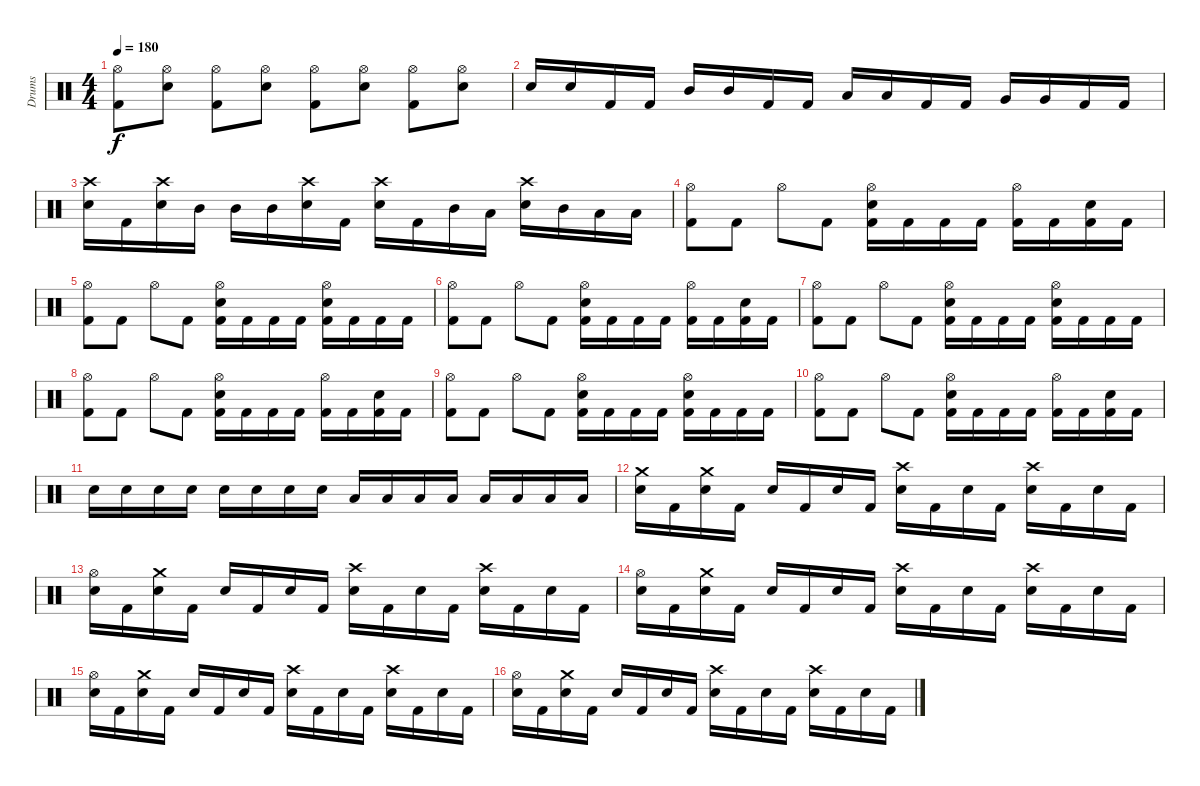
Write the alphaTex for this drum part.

\track ("Drums" "Drums") {instrument percussion}
\staff {score}
\articulation defaults
\ts (4 4)
\tempo 180
\clef neutral
\ks c
("Hi-Hat (open)" "Kick (hit) 2").8{dy f} ("Hi-Hat (open)" "Electric Snare (hit)").8 ("Hi-Hat (open)" "Kick (hit) 2").8 ("Hi-Hat (open)" "Electric Snare (hit)").8 ("Hi-Hat (open)" "Kick (hit) 2").8 ("Hi-Hat (open)" "Electric Snare (hit)").8 ("Hi-Hat (open)" "Kick (hit) 2").8 ("Hi-Hat (open)" "Electric Snare (hit)").8 |
"Electric Snare (hit)".16 "Electric Snare (hit)".16 "Kick (hit) 2".16 "Kick (hit) 2".16 "Mid Tom (hit)".16 "Mid Tom (hit)".16 "Kick (hit) 2".16 "Kick (hit) 2".16 "Low Tom (hit)".16 "Low Tom (hit)".16 "Kick (hit) 2".16 "Kick (hit) 2".16 "Very Low Tom (hit)".16 "Very Low Tom (hit)".16 "Kick (hit) 2".16 "Kick (hit) 2".16 |
("Crash high (hit)" "Electric Snare (hit)").16 "Kick (hit) 2".16 ("Crash high (hit)" "Electric Snare (hit)").16 "Mid Tom (hit)".16 "Mid Tom (hit)".16 "Mid Tom (hit)".16 ("Crash high (hit)" "Electric Snare (hit)").16 "Kick (hit) 2".16 ("Crash high (hit)" "Electric Snare (hit)").16 "Kick (hit) 2".16 "Mid Tom (hit)".16 "Low Tom (hit)".16 ("Crash high (hit)" "Electric Snare (hit)").16 "Mid Tom (hit)".16 "Low Tom (hit)".16 "Low Tom (hit)".16 |
("Hi-Hat (open)" "Kick (hit) 2").8 "Kick (hit) 2".8 "Hi-Hat (open)".8 "Kick (hit) 2".8 ("Hi-Hat (open)" "Electric Snare (hit)" "Kick (hit) 2").16 "Kick (hit) 2".16 "Kick (hit) 2".16 "Kick (hit) 2".16 ("Hi-Hat (open)" "Kick (hit) 2").16 "Kick (hit) 2".16 ("Electric Snare (hit)" "Kick (hit) 2").16 "Kick (hit) 2".16 |
("Hi-Hat (open)" "Kick (hit) 2").8 "Kick (hit) 2".8 "Hi-Hat (open)".8 "Kick (hit) 2".8 ("Hi-Hat (open)" "Electric Snare (hit)" "Kick (hit) 2").16 "Kick (hit) 2".16 "Kick (hit) 2".16 "Kick (hit) 2".16 ("Hi-Hat (open)" "Electric Snare (hit)" "Kick (hit) 2").16 "Kick (hit) 2".16 "Kick (hit) 2".16 "Kick (hit) 2".16 |
("Hi-Hat (open)" "Kick (hit) 2").8 "Kick (hit) 2".8 "Hi-Hat (open)".8 "Kick (hit) 2".8 ("Hi-Hat (open)" "Electric Snare (hit)" "Kick (hit) 2").16 "Kick (hit) 2".16 "Kick (hit) 2".16 "Kick (hit) 2".16 ("Hi-Hat (open)" "Kick (hit) 2").16 "Kick (hit) 2".16 ("Electric Snare (hit)" "Kick (hit) 2").16 "Kick (hit) 2".16 |
("Hi-Hat (open)" "Kick (hit) 2").8 "Kick (hit) 2".8 "Hi-Hat (open)".8 "Kick (hit) 2".8 ("Hi-Hat (open)" "Electric Snare (hit)" "Kick (hit) 2").16 "Kick (hit) 2".16 "Kick (hit) 2".16 "Kick (hit) 2".16 ("Hi-Hat (open)" "Electric Snare (hit)" "Kick (hit) 2").16 "Kick (hit) 2".16 "Kick (hit) 2".16 "Kick (hit) 2".16 |
("Hi-Hat (open)" "Kick (hit) 2").8 "Kick (hit) 2".8 "Hi-Hat (open)".8 "Kick (hit) 2".8 ("Hi-Hat (open)" "Electric Snare (hit)" "Kick (hit) 2").16 "Kick (hit) 2".16 "Kick (hit) 2".16 "Kick (hit) 2".16 ("Hi-Hat (open)" "Kick (hit) 2").16 "Kick (hit) 2".16 ("Electric Snare (hit)" "Kick (hit) 2").16 "Kick (hit) 2".16 |
("Hi-Hat (open)" "Kick (hit) 2").8 "Kick (hit) 2".8 "Hi-Hat (open)".8 "Kick (hit) 2".8 ("Hi-Hat (open)" "Electric Snare (hit)" "Kick (hit) 2").16 "Kick (hit) 2".16 "Kick (hit) 2".16 "Kick (hit) 2".16 ("Hi-Hat (open)" "Electric Snare (hit)" "Kick (hit) 2").16 "Kick (hit) 2".16 "Kick (hit) 2".16 "Kick (hit) 2".16 |
("Hi-Hat (open)" "Kick (hit) 2").8 "Kick (hit) 2".8 "Hi-Hat (open)".8 "Kick (hit) 2".8 ("Hi-Hat (open)" "Electric Snare (hit)" "Kick (hit) 2").16 "Kick (hit) 2".16 "Kick (hit) 2".16 "Kick (hit) 2".16 ("Hi-Hat (open)" "Kick (hit) 2").16 "Kick (hit) 2".16 ("Electric Snare (hit)" "Kick (hit) 2").16 "Kick (hit) 2".16 |
"Electric Snare (hit)".16 "Electric Snare (hit)".16 "Electric Snare (hit)".16 "Electric Snare (hit)".16 "Electric Snare (hit)".16 "Electric Snare (hit)".16 "Electric Snare (hit)".16 "Electric Snare (hit)".16 "Low Tom (hit)".16 "Low Tom (hit)".16 "Low Tom (hit)".16 "Low Tom (hit)".16 "Low Tom (hit)".16 "Low Tom (hit)".16 "Low Tom (hit)".16 "Low Tom (hit)".16 |
("Crash medium (hit)" "Electric Snare (hit)").16 "Kick (hit) 2".16 ("Crash medium (hit)" "Electric Snare (hit)").16 "Kick (hit) 2".16 "Electric Snare (hit)".16 "Kick (hit) 2".16 "Electric Snare (hit)".16 "Kick (hit) 2".16 ("Crash high (hit)" "Electric Snare (hit)").16 "Kick (hit) 2".16 "Electric Snare (hit)".16 "Kick (hit) 2".16 ("Crash high (hit)" "Electric Snare (hit)").16 "Kick (hit) 2".16 "Electric Snare (hit)".16 "Kick (hit) 2".16 |
("Hi-Hat (open)" "Electric Snare (hit)").16 "Kick (hit) 2".16 ("Crash medium (hit)" "Electric Snare (hit)").16 "Kick (hit) 2".16 "Electric Snare (hit)".16 "Kick (hit) 2".16 "Electric Snare (hit)".16 "Kick (hit) 2".16 ("Crash high (hit)" "Electric Snare (hit)").16 "Kick (hit) 2".16 "Electric Snare (hit)".16 "Kick (hit) 2".16 ("Crash high (hit)" "Electric Snare (hit)").16 "Kick (hit) 2".16 "Electric Snare (hit)".16 "Kick (hit) 2".16 |
("Hi-Hat (open)" "Electric Snare (hit)").16 "Kick (hit) 2".16 ("Crash medium (hit)" "Electric Snare (hit)").16 "Kick (hit) 2".16 "Electric Snare (hit)".16 "Kick (hit) 2".16 "Electric Snare (hit)".16 "Kick (hit) 2".16 ("Crash high (hit)" "Electric Snare (hit)").16 "Kick (hit) 2".16 "Electric Snare (hit)".16 "Kick (hit) 2".16 ("Crash high (hit)" "Electric Snare (hit)").16 "Kick (hit) 2".16 "Electric Snare (hit)".16 "Kick (hit) 2".16 |
("Hi-Hat (open)" "Electric Snare (hit)").16 "Kick (hit) 2".16 ("Crash medium (hit)" "Electric Snare (hit)").16 "Kick (hit) 2".16 "Electric Snare (hit)".16 "Kick (hit) 2".16 "Electric Snare (hit)".16 "Kick (hit) 2".16 ("Crash high (hit)" "Electric Snare (hit)").16 "Kick (hit) 2".16 "Electric Snare (hit)".16 "Kick (hit) 2".16 ("Crash high (hit)" "Electric Snare (hit)").16 "Kick (hit) 2".16 "Electric Snare (hit)".16 "Kick (hit) 2".16 |
("Hi-Hat (open)" "Electric Snare (hit)").16 "Kick (hit) 2".16 ("Crash medium (hit)" "Electric Snare (hit)").16 "Kick (hit) 2".16 "Electric Snare (hit)".16 "Kick (hit) 2".16 "Electric Snare (hit)".16 "Kick (hit) 2".16 ("Crash high (hit)" "Electric Snare (hit)").16 "Kick (hit) 2".16 "Electric Snare (hit)".16 "Kick (hit) 2".16 ("Crash high (hit)" "Electric Snare (hit)").16 "Kick (hit) 2".16 "Electric Snare (hit)".16 "Kick (hit) 2".16
